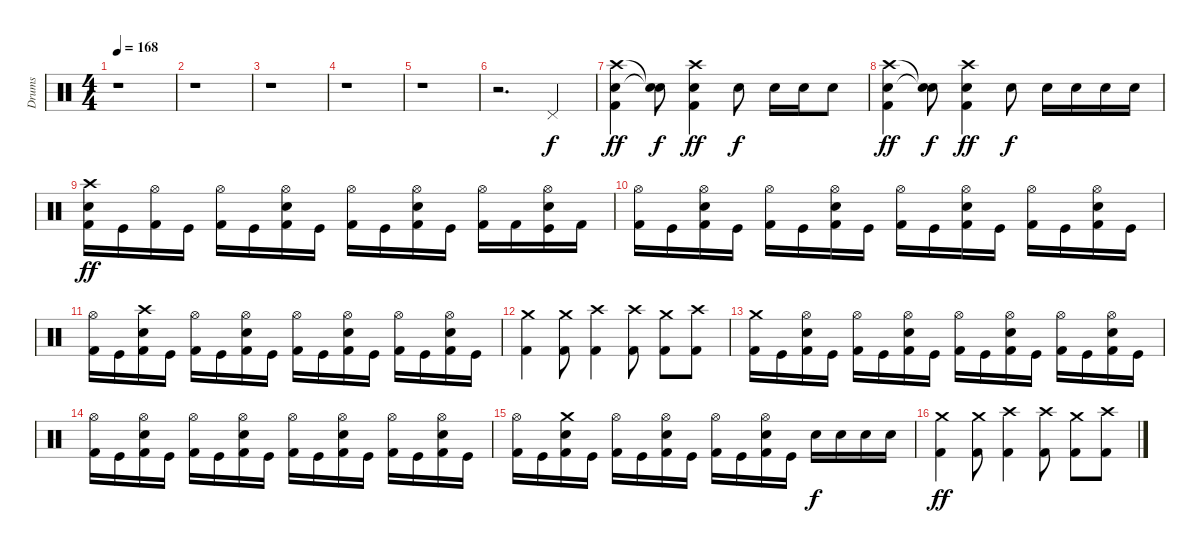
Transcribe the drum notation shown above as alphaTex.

\track ("Drums" "Drums") {instrument percussion}
\staff {score}
\articulation defaults
\ts (4 4)
\tempo 168
\clef neutral
\ks c
r.1{dy f} |
r.1 |
r.1 |
r.1 |
r.1 |
r.2{d} "Pedal Hi-Hat (hit)".4 |
("Crash high (hit)" "Electric Snare (hit)" "Kick (hit) 2").4{dy ff} ("Snare (hit)"{t} "Snare (hit)"{t}).8{dy f} ("Crash high (hit)" "Electric Snare (hit)" "Kick (hit) 2").4{dy ff} "Electric Snare (hit)".8{dy f} "Electric Snare (hit)".16 "Electric Snare (hit)".16 "Electric Snare (hit)".8 |
("Crash high (hit)" "Electric Snare (hit)" "Kick (hit) 2").4{dy ff} ("Snare (hit)"{t} "Snare (hit)"{t}).8{dy f} ("Crash high (hit)" "Electric Snare (hit)" "Kick (hit) 2").4{dy ff} "Electric Snare (hit)".8{dy f} "Electric Snare (hit)".16 "Electric Snare (hit)".16 "Electric Snare (hit)".16 "Electric Snare (hit)".16 |
("Crash high (hit)" "Electric Snare (hit)" "Kick (hit) 2").16{dy ff} "Kick (hit)".16 ("Hi-Hat (open)" "Kick (hit) 2").16 "Kick (hit)".16 ("Hi-Hat (open)" "Kick (hit) 2").16 "Kick (hit)".16 ("Hi-Hat (open)" "Electric Snare (hit)" "Kick (hit) 2").16 "Kick (hit)".16 ("Hi-Hat (open)" "Kick (hit) 2").16 "Kick (hit)".16 ("Hi-Hat (open)" "Electric Snare (hit)" "Kick (hit) 2").16 "Kick (hit)".16 ("Hi-Hat (open)" "Kick (hit) 2").16 "Kick (hit) 2".16 ("Hi-Hat (open)" "Electric Snare (hit)" "Kick (hit)").16 "Kick (hit) 2".16 |
("Hi-Hat (open)" "Kick (hit) 2").16 "Kick (hit)".16 ("Hi-Hat (open)" "Electric Snare (hit)" "Kick (hit) 2").16 "Kick (hit)".16 ("Hi-Hat (open)" "Kick (hit) 2").16 "Kick (hit)".16 ("Hi-Hat (open)" "Electric Snare (hit)" "Kick (hit) 2").16 "Kick (hit)".16 ("Hi-Hat (open)" "Kick (hit) 2").16 "Kick (hit)".16 ("Hi-Hat (open)" "Electric Snare (hit)" "Kick (hit) 2").16 "Kick (hit)".16 ("Hi-Hat (open)" "Kick (hit) 2").16 "Kick (hit)".16 ("Hi-Hat (open)" "Electric Snare (hit)" "Kick (hit) 2").16 "Kick (hit)".16 |
("Hi-Hat (open)" "Kick (hit) 2").16 "Kick (hit)".16 ("Crash high (hit)" "Electric Snare (hit)" "Kick (hit) 2").16 "Kick (hit)".16 ("Hi-Hat (open)" "Kick (hit) 2").16 "Kick (hit)".16 ("Hi-Hat (open)" "Electric Snare (hit)" "Kick (hit) 2").16 "Kick (hit)".16 ("Hi-Hat (open)" "Kick (hit) 2").16 "Kick (hit)".16 ("Hi-Hat (open)" "Electric Snare (hit)" "Kick (hit) 2").16 "Kick (hit)".16 ("Hi-Hat (open)" "Kick (hit) 2").16 "Kick (hit)".16 ("Hi-Hat (open)" "Electric Snare (hit)" "Kick (hit) 2").16 "Kick (hit)".16 |
("Crash medium (hit)" "Kick (hit) 2").4 ("Crash medium (hit)" "Kick (hit) 2").8 ("Crash high (hit)" "Kick (hit) 2").4 ("Crash high (hit)" "Kick (hit) 2").8 ("Crash medium (hit)" "Kick (hit) 2").8 ("Crash high (hit)" "Kick (hit) 2").8 |
("Crash medium (hit)" "Kick (hit) 2").16 "Kick (hit)".16 ("Hi-Hat (open)" "Electric Snare (hit)" "Kick (hit) 2").16 "Kick (hit)".16 ("Hi-Hat (open)" "Kick (hit) 2").16 "Kick (hit)".16 ("Hi-Hat (open)" "Electric Snare (hit)" "Kick (hit) 2").16 "Kick (hit)".16 ("Hi-Hat (open)" "Kick (hit) 2").16 "Kick (hit)".16 ("Hi-Hat (open)" "Electric Snare (hit)" "Kick (hit) 2").16 "Kick (hit)".16 ("Hi-Hat (open)" "Kick (hit) 2").16 "Kick (hit)".16 ("Hi-Hat (open)" "Electric Snare (hit)" "Kick (hit) 2").16 "Kick (hit)".16 |
("Hi-Hat (open)" "Kick (hit) 2").16 "Kick (hit)".16 ("Hi-Hat (open)" "Electric Snare (hit)" "Kick (hit) 2").16 "Kick (hit)".16 ("Hi-Hat (open)" "Kick (hit) 2").16 "Kick (hit)".16 ("Hi-Hat (open)" "Electric Snare (hit)" "Kick (hit) 2").16 "Kick (hit)".16 ("Hi-Hat (open)" "Kick (hit) 2").16 "Kick (hit)".16 ("Hi-Hat (open)" "Electric Snare (hit)" "Kick (hit) 2").16 "Kick (hit)".16 ("Hi-Hat (open)" "Kick (hit) 2").16 "Kick (hit)".16 ("Hi-Hat (open)" "Electric Snare (hit)" "Kick (hit) 2").16 "Kick (hit)".16 |
("Hi-Hat (open)" "Kick (hit) 2").16 "Kick (hit)".16 ("Crash medium (hit)" "Electric Snare (hit)" "Kick (hit) 2").16 "Kick (hit)".16 ("Hi-Hat (open)" "Kick (hit) 2").16 "Kick (hit)".16 ("Hi-Hat (open)" "Electric Snare (hit)" "Kick (hit) 2").16 "Kick (hit)".16 ("Hi-Hat (open)" "Kick (hit) 2").16 "Kick (hit)".16 ("Hi-Hat (open)" "Electric Snare (hit)" "Kick (hit) 2").16 "Kick (hit)".16 "Electric Snare (hit)".16{dy f} "Electric Snare (hit)".16 "Electric Snare (hit)".16 "Electric Snare (hit)".16 |
("Crash medium (hit)" "Kick (hit) 2").4{dy ff} ("Crash medium (hit)" "Kick (hit) 2").8 ("Crash high (hit)" "Kick (hit) 2").4 ("Crash high (hit)" "Kick (hit) 2").8 ("Crash medium (hit)" "Kick (hit) 2").8 ("Crash high (hit)" "Kick (hit) 2").8
